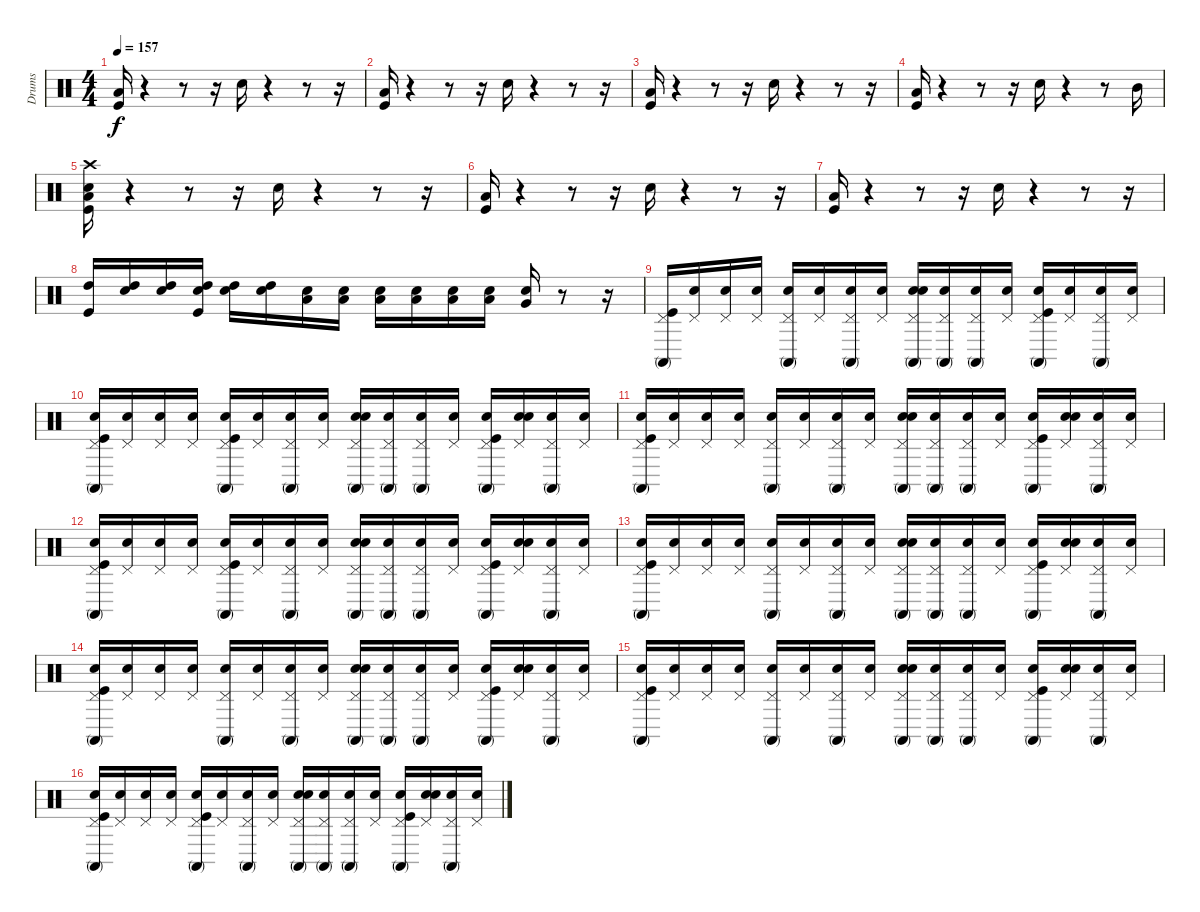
\track ("Drums" "Drums") {instrument percussion}
\staff {score}
\articulation defaults
\ts (4 4)
\tempo 157
\clef neutral
\ks c
("Kick (hit)" "Low Floor Tom (hit)").16{dy f} r.4 r.8 r.16 "Snare (hit) 2".16 r.4 r.8 r.16 |
("Kick (hit)" "Low Floor Tom (hit)").16 r.4 r.8 r.16 "Snare (hit) 2".16 r.4 r.8 r.16 |
("Low Floor Tom (hit)" "Kick (hit)").16 r.4 r.8 r.16 "Snare (hit) 2".16 r.4 r.8 r.16 |
("Kick (hit)" "Low Floor Tom (hit)").16 r.4 r.8 r.16 "Snare (hit) 2".16 r.4 r.8 "Mid Tom (hit)".16 |
("Snare (hit)" "Kick (hit)" "Low Floor Tom (hit)" "Crash high (hit)").16 r.4 r.8 r.16 "Snare (hit) 2".16 r.4 r.8 r.16 |
("Low Floor Tom (hit)" "Kick (hit)").16 r.4 r.8 r.16 "Snare (hit) 2".16 r.4 r.8 r.16 |
("Low Floor Tom (hit)" "Kick (hit)").16 r.4 r.8 r.16 "Snare (hit) 2".16 r.4 r.8 r.16 |
("Kick (hit)" "High Tom (hit)").16 ("Snare (hit)" "High Tom (hit)").16 ("Snare (hit)" "High Tom (hit)").16 ("Snare (hit)" "Kick (hit)" "High Tom (hit)").16 ("Snare (hit)" "High Tom (hit)").16 ("Snare (hit)" "High Tom (hit)").16 ("Snare (hit)" "Low Tom (hit)").16 ("Snare (hit)" "Low Tom (hit)").16 ("Snare (hit)" "Low Tom (hit)").16 ("Snare (hit)" "Low Tom (hit)").16 ("Snare (hit)" "Low Tom (hit)").16 ("Snare (hit)" "Low Tom (hit)").16 ("Snare (hit)" "Very Low Tom (hit)").16 r.8 r.16 |
("Conga high (mute)" "Kick (hit)" "Pedal Hi-Hat (hit)").16 ("Snare (hit)" "Pedal Hi-Hat (hit)").16 ("Snare (hit)" "Pedal Hi-Hat (hit)").16 ("Snare (hit)" "Pedal Hi-Hat (hit)").16 ("Snare (hit)" "Pedal Hi-Hat (hit)" "Conga high (mute)").16 ("Snare (hit)" "Pedal Hi-Hat (hit)").16 ("Snare (hit)" "Pedal Hi-Hat (hit)" "Conga high (mute)").16 ("Snare (hit)" "Pedal Hi-Hat (hit)").16 ("Snare (hit)" "Snare (hit) 2" "Pedal Hi-Hat (hit)" "Conga high (mute)").16 ("Snare (hit)" "Conga high (mute)" "Pedal Hi-Hat (hit)").16 ("Snare (hit)" "Conga high (mute)" "Pedal Hi-Hat (hit)").16 ("Snare (hit)" "Pedal Hi-Hat (hit)").16 ("Snare (hit)" "Conga high (mute)" "Kick (hit)" "Pedal Hi-Hat (hit)").16 ("Snare (hit)" "Pedal Hi-Hat (hit)").16 ("Snare (hit)" "Conga high (mute)" "Pedal Hi-Hat (hit)").16 ("Snare (hit)" "Pedal Hi-Hat (hit)").16 |
("Snare (hit)" "Conga high (mute)" "Pedal Hi-Hat (hit)" "Kick (hit)").16 ("Snare (hit)" "Pedal Hi-Hat (hit)").16 ("Snare (hit)" "Pedal Hi-Hat (hit)").16 ("Snare (hit)" "Pedal Hi-Hat (hit)").16 ("Snare (hit)" "Kick (hit)" "Pedal Hi-Hat (hit)" "Conga high (mute)").16 ("Snare (hit)" "Pedal Hi-Hat (hit)").16 ("Snare (hit)" "Conga high (mute)" "Pedal Hi-Hat (hit)").16 ("Snare (hit)" "Pedal Hi-Hat (hit)").16 ("Snare (hit)" "Pedal Hi-Hat (hit)" "Conga high (mute)" "Snare (hit) 2").16 ("Snare (hit)" "Conga high (mute)" "Pedal Hi-Hat (hit)").16 ("Snare (hit)" "Pedal Hi-Hat (hit)" "Conga high (mute)").16 ("Snare (hit)" "Pedal Hi-Hat (hit)").16 ("Snare (hit)" "Kick (hit)" "Pedal Hi-Hat (hit)" "Conga high (mute)").16 ("Snare (hit)" "Pedal Hi-Hat (hit)" "Snare (hit) 2").16 ("Snare (hit)" "Pedal Hi-Hat (hit)" "Conga high (mute)").16 ("Snare (hit)" "Pedal Hi-Hat (hit)").16 |
("Snare (hit)" "Kick (hit)" "Pedal Hi-Hat (hit)" "Conga high (mute)").16 ("Snare (hit)" "Pedal Hi-Hat (hit)").16 ("Snare (hit)" "Pedal Hi-Hat (hit)").16 ("Snare (hit)" "Pedal Hi-Hat (hit)").16 ("Snare (hit)" "Pedal Hi-Hat (hit)" "Conga high (mute)").16 ("Snare (hit)" "Pedal Hi-Hat (hit)").16 ("Snare (hit)" "Pedal Hi-Hat (hit)" "Conga high (mute)").16 ("Snare (hit)" "Pedal Hi-Hat (hit)").16 ("Snare (hit)" "Pedal Hi-Hat (hit)" "Conga high (mute)" "Snare (hit) 2").16 ("Snare (hit)" "Conga high (mute)" "Pedal Hi-Hat (hit)").16 ("Snare (hit)" "Pedal Hi-Hat (hit)" "Conga high (mute)").16 ("Snare (hit)" "Pedal Hi-Hat (hit)").16 ("Snare (hit)" "Conga high (mute)" "Pedal Hi-Hat (hit)" "Kick (hit)").16 ("Snare (hit)" "Pedal Hi-Hat (hit)" "Snare (hit) 2").16 ("Snare (hit)" "Pedal Hi-Hat (hit)" "Conga high (mute)").16 ("Snare (hit)" "Pedal Hi-Hat (hit)").16 |
("Snare (hit)" "Conga high (mute)" "Kick (hit)" "Pedal Hi-Hat (hit)").16 ("Snare (hit)" "Pedal Hi-Hat (hit)").16 ("Snare (hit)" "Pedal Hi-Hat (hit)").16 ("Snare (hit)" "Pedal Hi-Hat (hit)").16 ("Snare (hit)" "Kick (hit)" "Pedal Hi-Hat (hit)" "Conga high (mute)").16 ("Snare (hit)" "Pedal Hi-Hat (hit)").16 ("Snare (hit)" "Pedal Hi-Hat (hit)" "Conga high (mute)").16 ("Snare (hit)" "Pedal Hi-Hat (hit)").16 ("Snare (hit)" "Conga high (mute)" "Snare (hit) 2" "Pedal Hi-Hat (hit)").16 ("Snare (hit)" "Conga high (mute)" "Pedal Hi-Hat (hit)").16 ("Snare (hit)" "Pedal Hi-Hat (hit)" "Conga high (mute)").16 ("Snare (hit)" "Pedal Hi-Hat (hit)").16 ("Snare (hit)" "Kick (hit)" "Pedal Hi-Hat (hit)" "Conga high (mute)").16 ("Snare (hit)" "Pedal Hi-Hat (hit)" "Snare (hit) 2").16 ("Snare (hit)" "Pedal Hi-Hat (hit)" "Conga high (mute)").16 ("Snare (hit)" "Pedal Hi-Hat (hit)").16 |
("Snare (hit)" "Kick (hit)" "Pedal Hi-Hat (hit)" "Conga high (mute)").16 ("Snare (hit)" "Pedal Hi-Hat (hit)").16 ("Snare (hit)" "Pedal Hi-Hat (hit)").16 ("Snare (hit)" "Pedal Hi-Hat (hit)").16 ("Snare (hit)" "Conga high (mute)" "Pedal Hi-Hat (hit)").16 ("Snare (hit)" "Pedal Hi-Hat (hit)").16 ("Snare (hit)" "Pedal Hi-Hat (hit)" "Conga high (mute)").16 ("Snare (hit)" "Pedal Hi-Hat (hit)").16 ("Snare (hit)" "Conga high (mute)" "Pedal Hi-Hat (hit)" "Snare (hit) 2").16 ("Snare (hit)" "Conga high (mute)" "Pedal Hi-Hat (hit)").16 ("Snare (hit)" "Pedal Hi-Hat (hit)" "Conga high (mute)").16 ("Snare (hit)" "Pedal Hi-Hat (hit)").16 ("Snare (hit)" "Pedal Hi-Hat (hit)" "Conga high (mute)" "Kick (hit)").16 ("Snare (hit)" "Snare (hit) 2" "Pedal Hi-Hat (hit)").16 ("Snare (hit)" "Pedal Hi-Hat (hit)" "Conga high (mute)").16 ("Snare (hit)" "Pedal Hi-Hat (hit)").16 |
("Snare (hit)" "Kick (hit)" "Pedal Hi-Hat (hit)" "Conga high (mute)").16 ("Snare (hit)" "Pedal Hi-Hat (hit)").16 ("Snare (hit)" "Pedal Hi-Hat (hit)").16 ("Snare (hit)" "Pedal Hi-Hat (hit)").16 ("Snare (hit)" "Conga high (mute)" "Pedal Hi-Hat (hit)").16 ("Snare (hit)" "Pedal Hi-Hat (hit)").16 ("Snare (hit)" "Pedal Hi-Hat (hit)" "Conga high (mute)").16 ("Snare (hit)" "Pedal Hi-Hat (hit)").16 ("Snare (hit)" "Snare (hit) 2" "Pedal Hi-Hat (hit)" "Conga high (mute)").16 ("Snare (hit)" "Conga high (mute)" "Pedal Hi-Hat (hit)").16 ("Snare (hit)" "Conga high (mute)" "Pedal Hi-Hat (hit)").16 ("Snare (hit)" "Pedal Hi-Hat (hit)").16 ("Snare (hit)" "Kick (hit)" "Conga high (mute)" "Pedal Hi-Hat (hit)").16 ("Snare (hit)" "Pedal Hi-Hat (hit)" "Snare (hit) 2").16 ("Snare (hit)" "Conga high (mute)" "Pedal Hi-Hat (hit)").16 ("Snare (hit)" "Pedal Hi-Hat (hit)").16 |
("Snare (hit)" "Conga high (mute)" "Kick (hit)" "Pedal Hi-Hat (hit)").16 ("Snare (hit)" "Pedal Hi-Hat (hit)").16 ("Snare (hit)" "Pedal Hi-Hat (hit)").16 ("Snare (hit)" "Pedal Hi-Hat (hit)").16 ("Snare (hit)" "Conga high (mute)" "Pedal Hi-Hat (hit)").16 ("Snare (hit)" "Pedal Hi-Hat (hit)").16 ("Snare (hit)" "Conga high (mute)" "Pedal Hi-Hat (hit)").16 ("Snare (hit)" "Pedal Hi-Hat (hit)").16 ("Snare (hit)" "Pedal Hi-Hat (hit)" "Conga high (mute)" "Snare (hit) 2").16 ("Snare (hit)" "Conga high (mute)" "Pedal Hi-Hat (hit)").16 ("Snare (hit)" "Conga high (mute)" "Pedal Hi-Hat (hit)").16 ("Snare (hit)" "Pedal Hi-Hat (hit)").16 ("Snare (hit)" "Pedal Hi-Hat (hit)" "Kick (hit)" "Conga high (mute)").16 ("Snare (hit)" "Pedal Hi-Hat (hit)" "Snare (hit) 2").16 ("Snare (hit)" "Pedal Hi-Hat (hit)" "Conga high (mute)").16 ("Snare (hit)" "Pedal Hi-Hat (hit)").16 |
("Snare (hit)" "Pedal Hi-Hat (hit)" "Kick (hit)" "Conga high (mute)").16 ("Snare (hit)" "Pedal Hi-Hat (hit)").16 ("Snare (hit)" "Pedal Hi-Hat (hit)").16 ("Snare (hit)" "Pedal Hi-Hat (hit)").16 ("Snare (hit)" "Pedal Hi-Hat (hit)" "Conga high (mute)" "Kick (hit)").16 ("Snare (hit)" "Pedal Hi-Hat (hit)").16 ("Snare (hit)" "Pedal Hi-Hat (hit)" "Conga high (mute)").16 ("Snare (hit)" "Pedal Hi-Hat (hit)").16 ("Snare (hit)" "Pedal Hi-Hat (hit)" "Conga high (mute)" "Snare (hit) 2").16 ("Snare (hit)" "Conga high (mute)" "Pedal Hi-Hat (hit)").16 ("Snare (hit)" "Conga high (mute)" "Pedal Hi-Hat (hit)").16 ("Snare (hit)" "Pedal Hi-Hat (hit)").16 ("Snare (hit)" "Conga high (mute)" "Pedal Hi-Hat (hit)" "Kick (hit)").16 ("Snare (hit)" "Pedal Hi-Hat (hit)" "Snare (hit) 2").16 ("Snare (hit)" "Conga high (mute)" "Pedal Hi-Hat (hit)").16 ("Snare (hit)" "Pedal Hi-Hat (hit)").16
